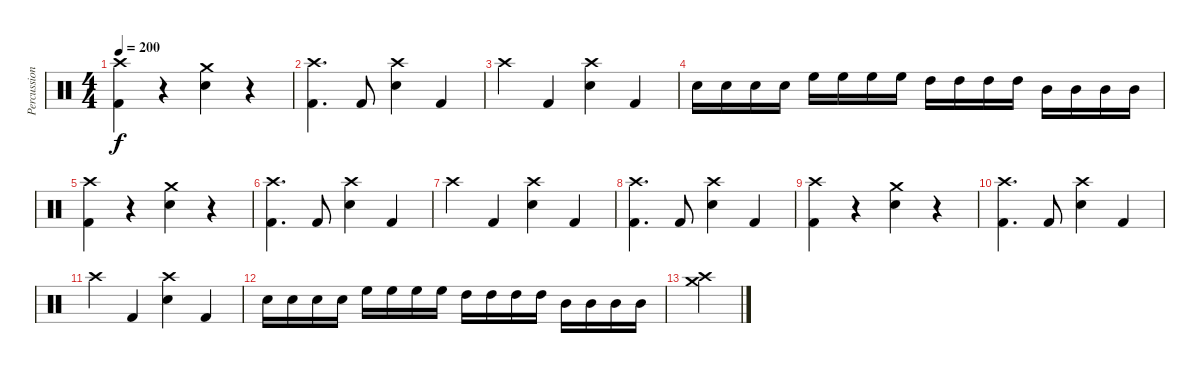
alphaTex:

\track ("Percussion" "Percussion") {instrument percussion}
\staff {score}
\articulation defaults
\ts (4 4)
\tempo 200
\clef neutral
\ks c
("Crash high (hit)" "Kick (hit) 2").4{dy f} r.4 ("Crash medium (hit)" "Snare (hit) 2").4 r.4 |
("Crash high (hit)" "Kick (hit) 2").4{d} "Kick (hit) 2".8 ("Crash high (hit)" "Snare (hit) 2").4 "Kick (hit) 2".4 |
"Crash high (hit)".4 "Kick (hit) 2".4 ("Crash high (hit)" "Snare (hit) 2").4 "Kick (hit) 2".4 |
"Snare (hit) 2".16 "Snare (hit) 2".16 "Snare (hit) 2".16 "Snare (hit) 2".16 "High Floor Tom (hit)".16 "High Floor Tom (hit)".16 "High Floor Tom (hit)".16 "High Floor Tom (hit)".16 "High Tom (hit)".16 "High Tom (hit)".16 "High Tom (hit)".16 "High Tom (hit)".16 "Mid Tom (hit)".16 "Mid Tom (hit)".16 "Mid Tom (hit)".16 "Mid Tom (hit)".16 |
("Crash high (hit)" "Kick (hit) 2").4 r.4 ("Crash medium (hit)" "Snare (hit) 2").4 r.4 |
("Crash high (hit)" "Kick (hit) 2").4{d} "Kick (hit) 2".8 ("Crash high (hit)" "Snare (hit) 2").4 "Kick (hit) 2".4 |
"Crash high (hit)".4 "Kick (hit) 2".4 ("Crash high (hit)" "Snare (hit) 2").4 "Kick (hit) 2".4 |
("Crash high (hit)" "Kick (hit) 2").4{d} "Kick (hit) 2".8 ("Crash high (hit)" "Snare (hit) 2").4 "Kick (hit) 2".4 |
("Crash high (hit)" "Kick (hit) 2").4 r.4 ("Crash medium (hit)" "Snare (hit) 2").4 r.4 |
("Crash high (hit)" "Kick (hit) 2").4{d} "Kick (hit) 2".8 ("Crash high (hit)" "Snare (hit) 2").4 "Kick (hit) 2".4 |
"Crash high (hit)".4 "Kick (hit) 2".4 ("Crash high (hit)" "Snare (hit) 2").4 "Kick (hit) 2".4 |
"Snare (hit) 2".16 "Snare (hit) 2".16 "Snare (hit) 2".16 "Snare (hit) 2".16 "High Floor Tom (hit)".16 "High Floor Tom (hit)".16 "High Floor Tom (hit)".16 "High Floor Tom (hit)".16 "High Tom (hit)".16 "High Tom (hit)".16 "High Tom (hit)".16 "High Tom (hit)".16 "Mid Tom (hit)".16 "Mid Tom (hit)".16 "Mid Tom (hit)".16 "Mid Tom (hit)".16 |
("Crash high (hit)" "Crash medium (hit)").4
